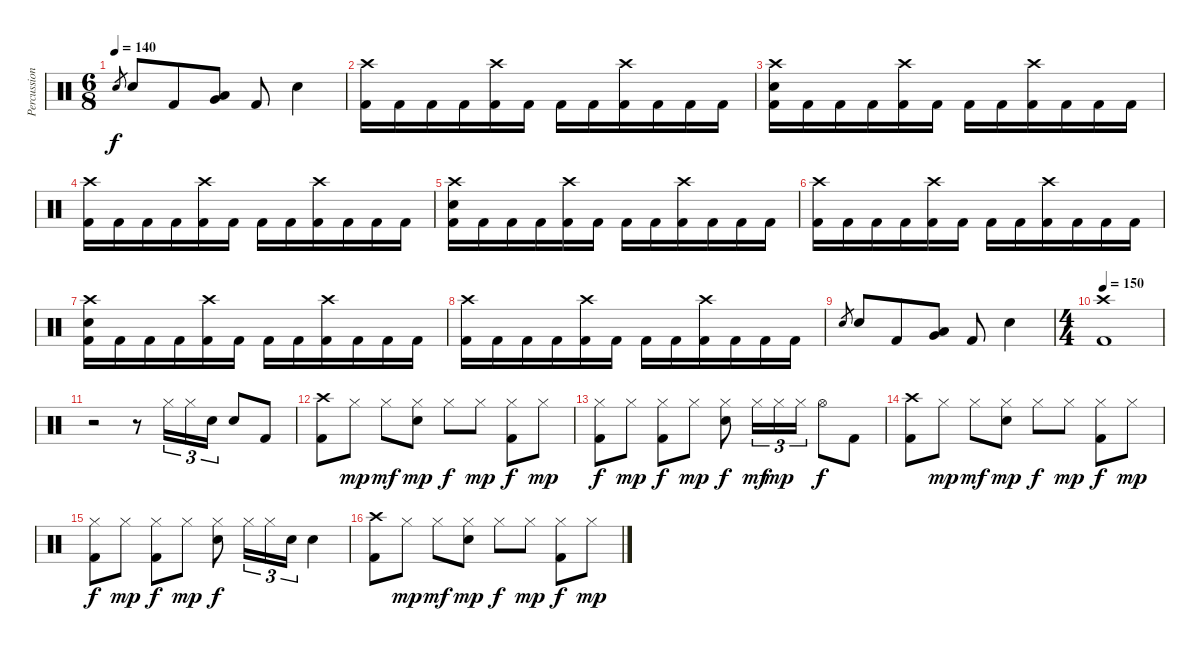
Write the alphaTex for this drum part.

\track ("Percussion" "Percussion") {instrument percussion}
\staff {score}
\articulation defaults
\ts (6 8)
\tempo 140
\clef neutral
\ks c "Snare (hit) 2".8{gr dy f} "Snare (hit) 2".8 "Kick (hit) 2".8
("Low Tom (hit)" "Very Low Tom (hit)").8 "Kick (hit) 2".8 "Snare (hit) 2".4 |
("Crash high (hit)" "Kick (hit) 2").16 "Kick (hit) 2".16 "Kick (hit) 2".16 "Kick (hit) 2".16 ("Crash high (hit)" "Kick (hit) 2").16 "Kick (hit) 2".16 "Kick (hit) 2".16 "Kick (hit) 2".16 ("Crash high (hit)" "Kick (hit) 2").16 "Kick (hit) 2".16 "Kick (hit) 2".16 "Kick (hit) 2".16 |
("Crash high (hit)" "Snare (hit) 2" "Kick (hit) 2").16 "Kick (hit) 2".16 "Kick (hit) 2".16 "Kick (hit) 2".16 ("Crash high (hit)" "Kick (hit) 2").16 "Kick (hit) 2".16 "Kick (hit) 2".16 "Kick (hit) 2".16 ("Crash high (hit)" "Kick (hit) 2").16 "Kick (hit) 2".16 "Kick (hit) 2".16 "Kick (hit) 2".16 |
("Crash high (hit)" "Kick (hit) 2").16 "Kick (hit) 2".16 "Kick (hit) 2".16 "Kick (hit) 2".16 ("Crash high (hit)" "Kick (hit) 2").16 "Kick (hit) 2".16 "Kick (hit) 2".16 "Kick (hit) 2".16 ("Crash high (hit)" "Kick (hit) 2").16 "Kick (hit) 2".16 "Kick (hit) 2".16 "Kick (hit) 2".16 |
("Crash high (hit)" "Snare (hit) 2" "Kick (hit) 2").16 "Kick (hit) 2".16 "Kick (hit) 2".16 "Kick (hit) 2".16 ("Crash high (hit)" "Kick (hit) 2").16 "Kick (hit) 2".16 "Kick (hit) 2".16 "Kick (hit) 2".16 ("Crash high (hit)" "Kick (hit) 2").16 "Kick (hit) 2".16 "Kick (hit) 2".16 "Kick (hit) 2".16 |
("Crash high (hit)" "Kick (hit) 2").16 "Kick (hit) 2".16 "Kick (hit) 2".16 "Kick (hit) 2".16 ("Crash high (hit)" "Kick (hit) 2").16 "Kick (hit) 2".16 "Kick (hit) 2".16 "Kick (hit) 2".16 ("Crash high (hit)" "Kick (hit) 2").16 "Kick (hit) 2".16 "Kick (hit) 2".16 "Kick (hit) 2".16 |
("Crash high (hit)" "Snare (hit) 2" "Kick (hit) 2").16 "Kick (hit) 2".16 "Kick (hit) 2".16 "Kick (hit) 2".16 ("Crash high (hit)" "Kick (hit) 2").16 "Kick (hit) 2".16 "Kick (hit) 2".16 "Kick (hit) 2".16 ("Crash high (hit)" "Kick (hit) 2").16 "Kick (hit) 2".16 "Kick (hit) 2".16 "Kick (hit) 2".16 |
("Crash high (hit)" "Kick (hit) 2").16 "Kick (hit) 2".16 "Kick (hit) 2".16 "Kick (hit) 2".16 ("Crash high (hit)" "Kick (hit) 2").16 "Kick (hit) 2".16 "Kick (hit) 2".16 "Kick (hit) 2".16 ("Crash high (hit)" "Kick (hit) 2").16 "Kick (hit) 2".16 "Kick (hit) 2".16 "Kick (hit) 2".16 |
"Snare (hit) 2".8{gr} "Snare (hit) 2".8 "Kick (hit) 2".8 ("Low Tom (hit)" "Very Low Tom (hit)").8 "Kick (hit) 2".8 "Snare (hit) 2".4 |
\ts (4 4)
\tempo 150
("Crash high (hit)" "Kick (hit) 2").1 |
r.2 r.8 "Hi-Hat (closed)".16{tu (3 2)} "Hi-Hat (closed)".16{tu (3 2)} "Snare (hit) 2".16{tu (3 2)} "Snare (hit) 2".8 "Kick (hit) 2".8 |
("Crash high (hit)" "Kick (hit) 2").8 "Hi-Hat (closed)".8{dy mp} "Hi-Hat (closed)".8{dy mf} ("Hi-Hat (closed)" "Snare (hit) 2").8{dy mp} "Hi-Hat (closed)".8{dy f} "Hi-Hat (closed)".8{dy mp} ("Hi-Hat (closed)" "Kick (hit) 2").8{dy f} "Hi-Hat (closed)".8{dy mp} |
("Hi-Hat (closed)" "Kick (hit) 2").8{dy f} "Hi-Hat (closed)".8{dy mp} ("Hi-Hat (closed)" "Kick (hit) 2").8{dy f} "Hi-Hat (closed)".8{dy mp} ("Hi-Hat (closed)" "Snare (hit) 2").8{dy f} "Hi-Hat (closed)".16{tu (3 2) dy mf} "Hi-Hat (closed)".16{tu (3 2) dy mp} "Hi-Hat (closed)".16{tu (3 2)} "Hi-Hat (open)".8{dy f} "Kick (hit) 2".8 |
("Crash high (hit)" "Kick (hit) 2").8 "Hi-Hat (closed)".8{dy mp} "Hi-Hat (closed)".8{dy mf} ("Hi-Hat (closed)" "Snare (hit) 2").8{dy mp} "Hi-Hat (closed)".8{dy f} "Hi-Hat (closed)".8{dy mp} ("Hi-Hat (closed)" "Kick (hit) 2").8{dy f} "Hi-Hat (closed)".8{dy mp} |
("Hi-Hat (closed)" "Kick (hit) 2").8{dy f} "Hi-Hat (closed)".8{dy mp} ("Hi-Hat (closed)" "Kick (hit) 2").8{dy f} "Hi-Hat (closed)".8{dy mp} ("Hi-Hat (closed)" "Snare (hit) 2").8{dy f} "Hi-Hat (closed)".16{tu (3 2)} "Hi-Hat (closed)".16{tu (3 2)} "Snare (hit) 2".16{tu (3 2)} "Snare (hit) 2".4 |
("Crash high (hit)" "Kick (hit) 2").8 "Hi-Hat (closed)".8{dy mp} "Hi-Hat (closed)".8{dy mf} ("Hi-Hat (closed)" "Snare (hit) 2").8{dy mp} "Hi-Hat (closed)".8{dy f} "Hi-Hat (closed)".8{dy mp} ("Hi-Hat (closed)" "Kick (hit) 2").8{dy f} "Hi-Hat (closed)".8{dy mp}
